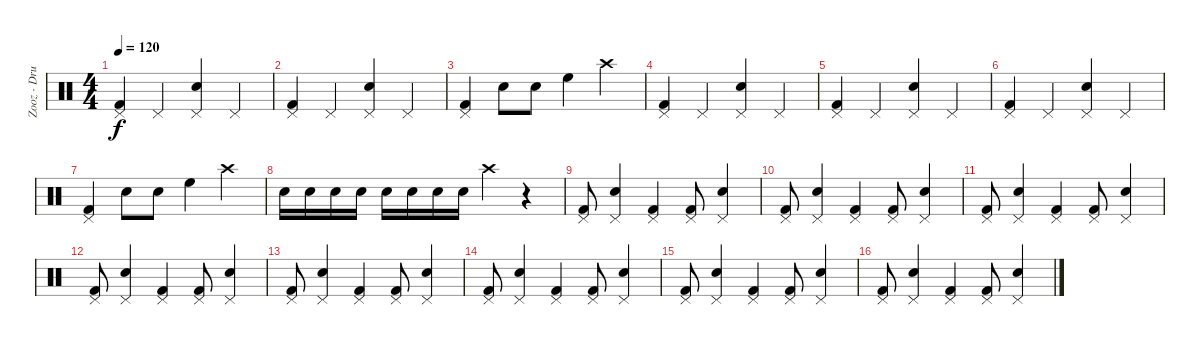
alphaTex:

\track ("Zooz - Drums" "Zooz - Dru") {instrument percussion}
\staff {score}
\articulation defaults
\ts (4 4)
\tempo 120
\clef neutral
\ks c
("Pedal Hi-Hat (hit)" "Kick (hit) 2").4{dy f} "Pedal Hi-Hat (hit)".4 ("Pedal Hi-Hat (hit)" "Electric Snare (hit)").4 "Pedal Hi-Hat (hit)".4 |
("Pedal Hi-Hat (hit)" "Kick (hit) 2").4 "Pedal Hi-Hat (hit)".4 ("Pedal Hi-Hat (hit)" "Electric Snare (hit)").4 "Pedal Hi-Hat (hit)".4 |
("Pedal Hi-Hat (hit)" "Kick (hit) 2").4 "Electric Snare (hit)".8 "Electric Snare (hit)".8 "High Floor Tom (hit)".4 "Crash high (hit)".4 |
("Pedal Hi-Hat (hit)" "Kick (hit) 2").4 "Pedal Hi-Hat (hit)".4 ("Pedal Hi-Hat (hit)" "Electric Snare (hit)").4 "Pedal Hi-Hat (hit)".4 |
("Pedal Hi-Hat (hit)" "Kick (hit) 2").4 "Pedal Hi-Hat (hit)".4 ("Pedal Hi-Hat (hit)" "Electric Snare (hit)").4 "Pedal Hi-Hat (hit)".4 |
("Pedal Hi-Hat (hit)" "Kick (hit) 2").4 "Pedal Hi-Hat (hit)".4 ("Pedal Hi-Hat (hit)" "Electric Snare (hit)").4 "Pedal Hi-Hat (hit)".4 |
("Pedal Hi-Hat (hit)" "Kick (hit) 2").4 "Electric Snare (hit)".8 "Electric Snare (hit)".8 "High Floor Tom (hit)".4 "Crash high (hit)".4 |
"Electric Snare (hit)".16 "Electric Snare (hit)".16 "Electric Snare (hit)".16 "Electric Snare (hit)".16 "Electric Snare (hit)".16 "Electric Snare (hit)".16 "Electric Snare (hit)".16 "Electric Snare (hit)".16 "Crash high (hit)".4 r.4 |
("Pedal Hi-Hat (hit)" "Kick (hit) 2").8 ("Pedal Hi-Hat (hit)" "Electric Snare (hit)").4 ("Pedal Hi-Hat (hit)" "Kick (hit) 2").4 ("Pedal Hi-Hat (hit)" "Kick (hit) 2").8 ("Electric Snare (hit)" "Pedal Hi-Hat (hit)").4 |
("Pedal Hi-Hat (hit)" "Kick (hit) 2").8 ("Pedal Hi-Hat (hit)" "Electric Snare (hit)").4 ("Pedal Hi-Hat (hit)" "Kick (hit) 2").4 ("Pedal Hi-Hat (hit)" "Kick (hit) 2").8 ("Electric Snare (hit)" "Pedal Hi-Hat (hit)").4 |
("Pedal Hi-Hat (hit)" "Kick (hit) 2").8 ("Pedal Hi-Hat (hit)" "Electric Snare (hit)").4 ("Pedal Hi-Hat (hit)" "Kick (hit) 2").4 ("Pedal Hi-Hat (hit)" "Kick (hit) 2").8 ("Electric Snare (hit)" "Pedal Hi-Hat (hit)").4 |
("Pedal Hi-Hat (hit)" "Kick (hit) 2").8 ("Pedal Hi-Hat (hit)" "Electric Snare (hit)").4 ("Pedal Hi-Hat (hit)" "Kick (hit) 2").4 ("Pedal Hi-Hat (hit)" "Kick (hit) 2").8 ("Electric Snare (hit)" "Pedal Hi-Hat (hit)").4 |
("Pedal Hi-Hat (hit)" "Kick (hit) 2").8 ("Pedal Hi-Hat (hit)" "Electric Snare (hit)").4 ("Pedal Hi-Hat (hit)" "Kick (hit) 2").4 ("Pedal Hi-Hat (hit)" "Kick (hit) 2").8 ("Electric Snare (hit)" "Pedal Hi-Hat (hit)").4 |
("Pedal Hi-Hat (hit)" "Kick (hit) 2").8 ("Pedal Hi-Hat (hit)" "Electric Snare (hit)").4 ("Pedal Hi-Hat (hit)" "Kick (hit) 2").4 ("Pedal Hi-Hat (hit)" "Kick (hit) 2").8 ("Electric Snare (hit)" "Pedal Hi-Hat (hit)").4 |
("Pedal Hi-Hat (hit)" "Kick (hit) 2").8 ("Pedal Hi-Hat (hit)" "Electric Snare (hit)").4 ("Pedal Hi-Hat (hit)" "Kick (hit) 2").4 ("Pedal Hi-Hat (hit)" "Kick (hit) 2").8 ("Electric Snare (hit)" "Pedal Hi-Hat (hit)").4 |
("Pedal Hi-Hat (hit)" "Kick (hit) 2").8 ("Pedal Hi-Hat (hit)" "Electric Snare (hit)").4 ("Pedal Hi-Hat (hit)" "Kick (hit) 2").4 ("Pedal Hi-Hat (hit)" "Kick (hit) 2").8 ("Electric Snare (hit)" "Pedal Hi-Hat (hit)").4
